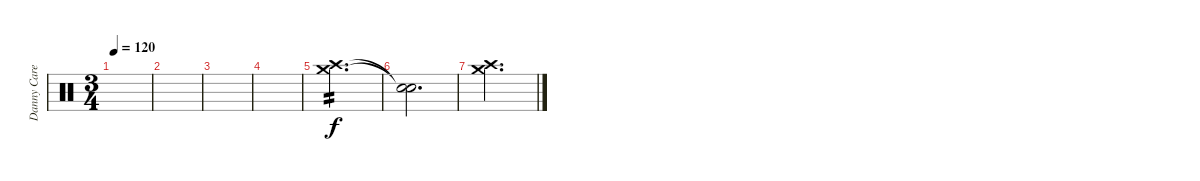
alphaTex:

\track ("Danny Carey" "Danny Care") {instrument percussion}
\staff {score}
\articulation defaults
\ts (3 4)
\tempo 120
\clef neutral
\ks c
|
|
|
|
("Crash medium (hit)" "Crash high (hit)").2{d tp 2 volume 10} |
("Snare (hit)"{t} "Snare (hit)"{t}).2{d} |
("Crash medium (hit)" "Crash high (hit)").2{d}
